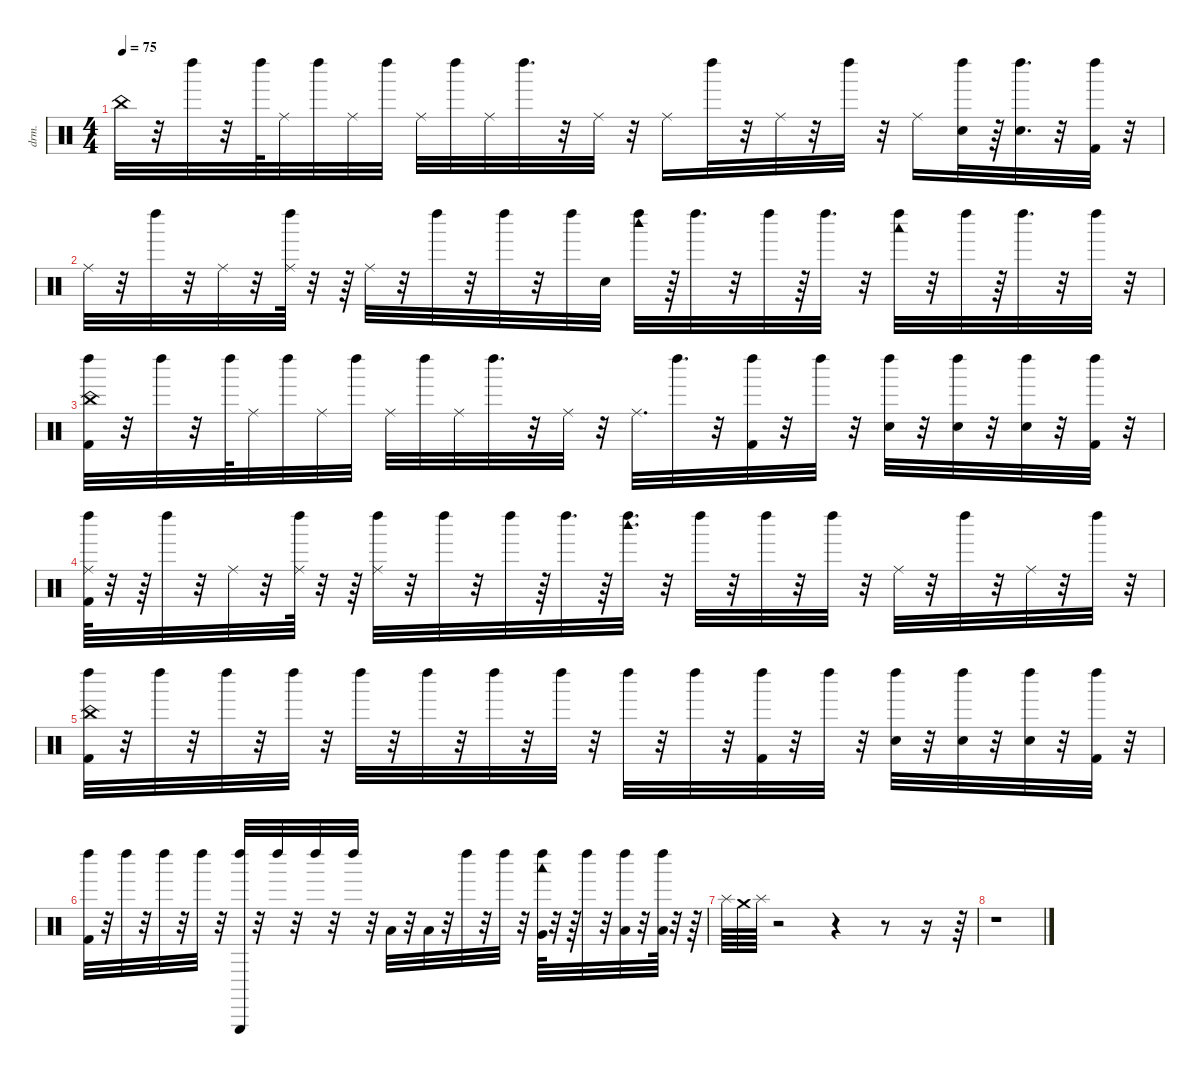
\defaultSystemsLayout 4
\hideDynamics
\bracketExtendMode nobrackets
\otherSystemsTrackNameOrientation horizontal
\track ("Drums" "drm.") {instrument percussion}
\staff {score}
\articulation defaults
\ts (4 4)
\tempo 75
\clef neutral
\ks c "China (hit)".32{dy f}
r.32 "Left Maraca (hit)".32 r.32 "Left Maraca (hit)".64 "Ride (middle)".32 "Left Maraca (hit)".32 "Ride (middle)".32 "Left Maraca (hit)".32 "Ride (middle)".32 "Left Maraca (hit)".32 "Ride (middle)".32 "Left Maraca (hit)".32{d} r.32 "Ride (middle)".32 r.32 "Ride (middle)".16 "Left Maraca (hit)".32 r.32 "Ride (middle)".32 r.32 "Left Maraca (hit)".32 r.32 "Ride (middle)".16 ("Snare (hit) 2" "Left Maraca (hit)").32 r.64 ("Snare (hit) 2" "Left Maraca (hit)").32{d} r.32 ("Kick (hit) 2" "Left Maraca (hit)").32 r.32 |
"Ride (middle)".32 r.32 "Left Maraca (hit)".32 r.32 "Ride (middle)".32 r.32 ("Left Maraca (hit)" "Ride (middle)").64 r.32 r.64 "Ride (middle)".32 r.32 "Left Maraca (hit)".32 r.32 "Left Maraca (hit)".32 r.32 "Left Maraca (hit)".32 "Snare (hit) 2".32 ("Woodblock high (hit)" "Left Maraca (hit)").32 r.64 "Left Maraca (hit)".32{d} r.32 "Left Maraca (hit)".32 r.64 "Left Maraca (hit)".32{d} r.32 ("Woodblock low (hit)" "Left Maraca (hit)").32 r.32 "Left Maraca (hit)".32 r.64 "Left Maraca (hit)".32{d} r.32 "Left Maraca (hit)".32 r.32 |
("China (hit)" "Kick (hit) 2" "Left Maraca (hit)").32 r.32 "Left Maraca (hit)".32 r.32 "Left Maraca (hit)".64 "Ride (middle)".32 "Left Maraca (hit)".32 "Ride (middle)".32 "Left Maraca (hit)".32 "Ride (middle)".32 "Left Maraca (hit)".32 "Ride (middle)".32 "Left Maraca (hit)".32{d} r.32 "Ride (middle)".32 r.32 "Ride (middle)".32{d} "Left Maraca (hit)".32{d} r.32 ("Kick (hit) 2" "Left Maraca (hit)").32 r.32 "Left Maraca (hit)".32 r.32 ("Snare (hit) 2" "Left Maraca (hit)").32 r.32 ("Snare (hit) 2" "Left Maraca (hit)").32 r.32 ("Snare (hit) 2" "Left Maraca (hit)").32 r.32 ("Kick (hit) 2" "Left Maraca (hit)").32 r.32 |
("Kick (hit) 2" "Left Maraca (hit)" "Ride (middle)").64 r.32 r.64 "Left Maraca (hit)".32 r.32 "Ride (middle)".32 r.32 ("Left Maraca (hit)" "Ride (middle)").64 r.32 r.64 ("Left Maraca (hit)" "Ride (middle)").32 r.32 "Left Maraca (hit)".32 r.32 "Left Maraca (hit)".32 r.64 "Left Maraca (hit)".32{d} r.64 ("Woodblock high (hit)" "Left Maraca (hit)").32{d} r.32 "Left Maraca (hit)".32 r.32 "Left Maraca (hit)".32 r.32 "Left Maraca (hit)".32 r.32 "Ride (middle)".32 r.32 "Left Maraca (hit)".32 r.32 "Ride (middle)".32 r.32 "Left Maraca (hit)".32 r.32 |
("China (hit)" "Kick (hit) 2" "Left Maraca (hit)").32 r.32 "Left Maraca (hit)".32 r.32 "Left Maraca (hit)".32 r.32 "Left Maraca (hit)".32 r.32 "Left Maraca (hit)".32 r.32 "Left Maraca (hit)".32 r.32 "Left Maraca (hit)".32 r.32 "Left Maraca (hit)".32 r.32 "Left Maraca (hit)".32 r.32 "Left Maraca (hit)".32 r.32 ("Kick (hit) 2" "Left Maraca (hit)").32 r.32 "Left Maraca (hit)".32 r.32 ("Snare (hit) 2" "Left Maraca (hit)").32 r.32 ("Snare (hit) 2" "Left Maraca (hit)").32 r.32 ("Snare (hit) 2" "Left Maraca (hit)").32 r.32 ("Kick (hit) 2" "Left Maraca (hit)").32 r.32 |
("Kick (hit) 2" "Left Maraca (hit)").32 r.32 "Left Maraca (hit)".32 r.32 "Left Maraca (hit)".32 r.32 "Left Maraca (hit)".32 r.32 ("Triangle (hit)" "Left Maraca (hit)").32 r.32 "Left Maraca (hit)".32 r.32 "Left Maraca (hit)".32 r.32 "Left Maraca (hit)".32 r.32 "Low Tom (hit)".32 r.32 "Low Tom (hit)".32 r.32 "Left Maraca (hit)".32 r.32 "Left Maraca (hit)".32 r.32 ("Woodblock low (hit)" "Left Maraca (hit)" "Very Low Tom (hit)").64 r.32 r.64 "Left Maraca (hit)".32 r.32 ("Low Floor Tom (hit)" "Left Maraca (hit)").32 r.32 ("Left Maraca (hit)" "Low Floor Tom (hit)").64 r.32 r.64 |
"Splash (hit)".64 "Crash medium (hit)".64 "Splash (hit)".64 r.2 r.4 r.8 r.16 r.64 |
r.1
